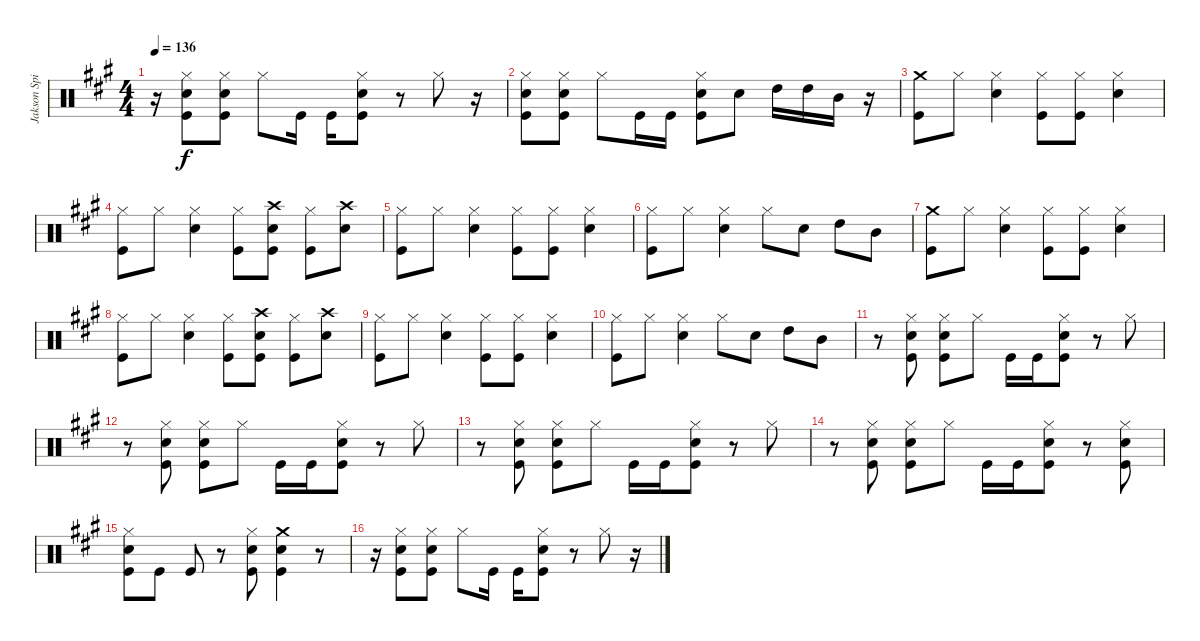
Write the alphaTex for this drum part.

\track ("Jakson Spires Drums" "Jakson Spi") {instrument percussion}
\staff {score}
\articulation defaults
\ts (4 4)
\tempo 136
\clef neutral
\ks a
r.16{dy f} ("Hi-Hat (closed)" "Snare (hit) 2" "Kick (hit)").8 ("Hi-Hat (closed)" "Snare (hit) 2" "Kick (hit)").8 "Hi-Hat (closed)".8 "Kick (hit)".16 "Kick (hit)".16 ("Hi-Hat (closed)" "Snare (hit) 2" "Kick (hit)").8 r.8 "Hi-Hat (closed)".8 r.16 |
("Hi-Hat (closed)" "Snare (hit) 2" "Kick (hit)").8 ("Hi-Hat (closed)" "Snare (hit) 2" "Kick (hit)").8 "Hi-Hat (closed)".8 "Kick (hit)".16 "Kick (hit)".16 ("Hi-Hat (closed)" "Snare (hit) 2" "Kick (hit)").8 "Snare (hit) 2".8 "High Tom (hit)".16 "High Tom (hit)".16 "Mid Tom (hit)".16 r.16 |
("Crash medium (hit)" "Kick (hit)").8 "Hi-Hat (closed)".8 ("Hi-Hat (closed)" "Snare (hit) 2").4 ("Hi-Hat (closed)" "Kick (hit)").8 ("Hi-Hat (closed)" "Kick (hit)").8 ("Hi-Hat (closed)" "Snare (hit) 2").4 |
("Hi-Hat (closed)" "Kick (hit)").8 "Hi-Hat (closed)".8 ("Hi-Hat (closed)" "Snare (hit) 2").4 ("Hi-Hat (closed)" "Kick (hit)").8 ("Crash high (hit)" "Snare (hit) 2" "Kick (hit)").8 ("Hi-Hat (closed)" "Kick (hit)").8 ("Crash high (hit)" "Snare (hit) 2").8 |
("Hi-Hat (closed)" "Kick (hit)").8 "Hi-Hat (closed)".8 ("Hi-Hat (closed)" "Snare (hit) 2").4 ("Hi-Hat (closed)" "Kick (hit)").8 ("Hi-Hat (closed)" "Kick (hit)").8 ("Hi-Hat (closed)" "Snare (hit) 2").4 |
("Hi-Hat (closed)" "Kick (hit)").8 "Hi-Hat (closed)".8 ("Hi-Hat (closed)" "Snare (hit) 2").4 "Hi-Hat (closed)".8 "Snare (hit) 2".8 "High Tom (hit)".8 "Mid Tom (hit)".8 |
("Crash medium (hit)" "Kick (hit)").8 "Hi-Hat (closed)".8 ("Hi-Hat (closed)" "Snare (hit) 2").4 ("Hi-Hat (closed)" "Kick (hit)").8 ("Hi-Hat (closed)" "Kick (hit)").8 ("Hi-Hat (closed)" "Snare (hit) 2").4 |
("Hi-Hat (closed)" "Kick (hit)").8 "Hi-Hat (closed)".8 ("Hi-Hat (closed)" "Snare (hit) 2").4 ("Hi-Hat (closed)" "Kick (hit)").8 ("Crash high (hit)" "Snare (hit) 2" "Kick (hit)").8 ("Hi-Hat (closed)" "Kick (hit)").8 ("Crash high (hit)" "Snare (hit) 2").8 |
("Hi-Hat (closed)" "Kick (hit)").8 "Hi-Hat (closed)".8 ("Hi-Hat (closed)" "Snare (hit) 2").4 ("Hi-Hat (closed)" "Kick (hit)").8 ("Hi-Hat (closed)" "Kick (hit)").8 ("Hi-Hat (closed)" "Snare (hit) 2").4 |
("Hi-Hat (closed)" "Kick (hit)").8 "Hi-Hat (closed)".8 ("Hi-Hat (closed)" "Snare (hit) 2").4 "Hi-Hat (closed)".8 "Snare (hit) 2".8 "High Tom (hit)".8 "Mid Tom (hit)".8 |
r.8 ("Hi-Hat (closed)" "Snare (hit) 2" "Kick (hit)").8 ("Hi-Hat (closed)" "Snare (hit) 2" "Kick (hit)").8 "Hi-Hat (closed)".8 "Kick (hit)".16 "Kick (hit)".16 ("Hi-Hat (closed)" "Snare (hit) 2" "Kick (hit)").8 r.8 "Hi-Hat (closed)".8 |
r.8 ("Hi-Hat (closed)" "Snare (hit) 2" "Kick (hit)").8 ("Hi-Hat (closed)" "Snare (hit) 2" "Kick (hit)").8 "Hi-Hat (closed)".8 "Kick (hit)".16 "Kick (hit)".16 ("Hi-Hat (closed)" "Snare (hit) 2" "Kick (hit)").8 r.8 "Hi-Hat (closed)".8 |
r.8 ("Hi-Hat (closed)" "Snare (hit) 2" "Kick (hit)").8 ("Hi-Hat (closed)" "Snare (hit) 2" "Kick (hit)").8 "Hi-Hat (closed)".8 "Kick (hit)".16 "Kick (hit)".16 ("Hi-Hat (closed)" "Snare (hit) 2" "Kick (hit)").8 r.8 "Hi-Hat (closed)".8 |
r.8 ("Hi-Hat (closed)" "Snare (hit) 2" "Kick (hit)").8 ("Hi-Hat (closed)" "Snare (hit) 2" "Kick (hit)").8 "Hi-Hat (closed)".8 "Kick (hit)".16 "Kick (hit)".16 ("Hi-Hat (closed)" "Snare (hit) 2" "Kick (hit)").8 r.8 ("Hi-Hat (closed)" "Snare (hit) 2" "Kick (hit)").8 |
("Hi-Hat (closed)" "Snare (hit) 2" "Kick (hit)").8 "Kick (hit)".8 "Kick (hit)".8 r.8 ("Hi-Hat (closed)" "Snare (hit) 2" "Kick (hit)").8 ("Crash medium (hit)" "Snare (hit) 2" "Kick (hit)").4 r.8 |
r.16 ("Hi-Hat (closed)" "Snare (hit) 2" "Kick (hit)").8 ("Hi-Hat (closed)" "Snare (hit) 2" "Kick (hit)").8 "Hi-Hat (closed)".8 "Kick (hit)".16 "Kick (hit)".16 ("Hi-Hat (closed)" "Snare (hit) 2" "Kick (hit)").8 r.8 "Hi-Hat (closed)".8 r.16
